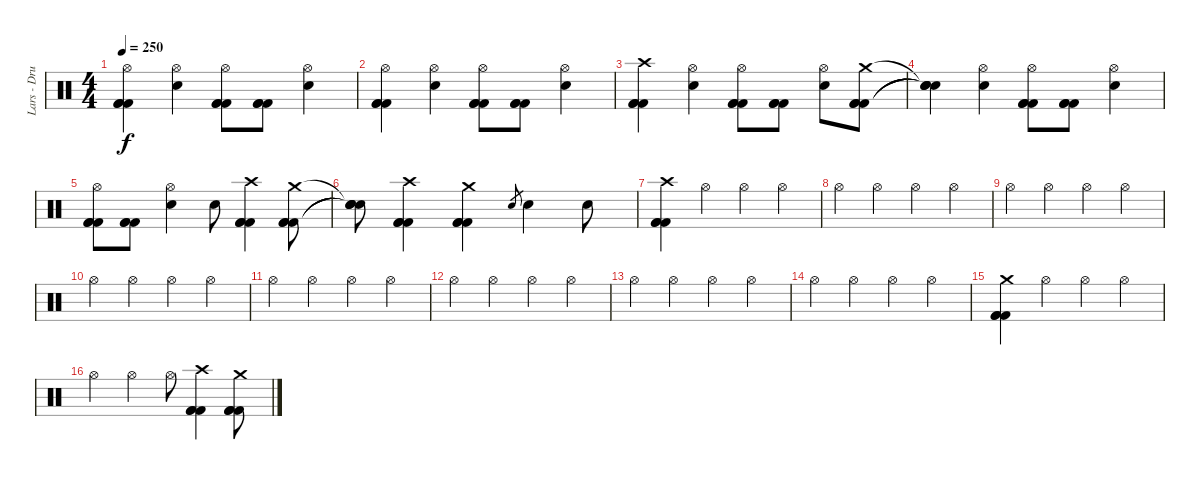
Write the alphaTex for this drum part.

\track ("Lars - Drums" "Lars - Dru") {instrument percussion}
\staff {score}
\articulation defaults
\ts (4 4)
\tempo 250
\clef neutral
\ks c
("Hi-Hat (open)" "Kick (hit) 2" "Kick (hit) 2" "Kick (hit) 2").4{dy f} ("Hi-Hat (open)" "Snare (hit) 2").4 ("Hi-Hat (open)" "Kick (hit) 2" "Kick (hit) 2" "Kick (hit) 2").8 ("Kick (hit) 2" "Kick (hit) 2" "Kick (hit) 2").8 ("Hi-Hat (open)" "Snare (hit) 2").4 |
("Hi-Hat (open)" "Kick (hit) 2" "Kick (hit) 2" "Kick (hit) 2").4 ("Hi-Hat (open)" "Snare (hit) 2").4 ("Hi-Hat (open)" "Kick (hit) 2" "Kick (hit) 2" "Kick (hit) 2").8 ("Kick (hit) 2" "Kick (hit) 2" "Kick (hit) 2").8 ("Hi-Hat (open)" "Snare (hit) 2").4 |
("Crash high (hit)" "Kick (hit) 2" "Kick (hit) 2" "Kick (hit) 2").4 ("Hi-Hat (open)" "Snare (hit) 2").4 ("Hi-Hat (open)" "Kick (hit) 2" "Kick (hit) 2" "Kick (hit) 2").8 ("Kick (hit) 2" "Kick (hit) 2" "Kick (hit) 2").8 ("Hi-Hat (open)" "Snare (hit) 2").8 ("Crash medium (hit)" "Kick (hit) 2" "Kick (hit) 2" "Kick (hit) 2").8 |
("Snare (hit)"{t} "Snare (hit)"{t} "Snare (hit)"{t} "Snare (hit)"{t}).4 ("Hi-Hat (open)" "Snare (hit) 2").4 ("Hi-Hat (open)" "Kick (hit) 2" "Kick (hit) 2" "Kick (hit) 2").8 ("Kick (hit) 2" "Kick (hit) 2" "Kick (hit) 2").8 ("Hi-Hat (open)" "Snare (hit) 2").4 |
("Hi-Hat (open)" "Kick (hit) 2" "Kick (hit) 2" "Kick (hit) 2").8 ("Kick (hit) 2" "Kick (hit) 2" "Kick (hit) 2").8 ("Hi-Hat (open)" "Snare (hit) 2").4 "Snare (hit) 2".8 ("Crash high (hit)" "Kick (hit) 2" "Kick (hit) 2" "Kick (hit) 2").4 ("Crash medium (hit)" "Kick (hit) 2" "Kick (hit) 2" "Kick (hit) 2").8 |
("Snare (hit)"{t} "Snare (hit)"{t} "Snare (hit)"{t} "Snare (hit)"{t}).8 ("Crash high (hit)" "Kick (hit) 2" "Kick (hit) 2" "Kick (hit) 2").4 ("Crash medium (hit)" "Kick (hit) 2" "Kick (hit) 2" "Kick (hit) 2").4 "Snare (hit) 2".8{gr} "Snare (hit) 2".4 "Snare (hit) 2".8 |
("Crash high (hit)" "Kick (hit) 2" "Kick (hit) 2" "Kick (hit) 2").4 "Hi-Hat (open)".4 "Hi-Hat (open)".4 "Hi-Hat (open)".4 |
"Hi-Hat (open)".4 "Hi-Hat (open)".4 "Hi-Hat (open)".4 "Hi-Hat (open)".4 |
"Hi-Hat (open)".4 "Hi-Hat (open)".4 "Hi-Hat (open)".4 "Hi-Hat (open)".4 |
"Hi-Hat (open)".4 "Hi-Hat (open)".4 "Hi-Hat (open)".4 "Hi-Hat (open)".4 |
"Hi-Hat (open)".4 "Hi-Hat (open)".4 "Hi-Hat (open)".4 "Hi-Hat (open)".4 |
"Hi-Hat (open)".4 "Hi-Hat (open)".4 "Hi-Hat (open)".4 "Hi-Hat (open)".4 |
"Hi-Hat (open)".4 "Hi-Hat (open)".4 "Hi-Hat (open)".4 "Hi-Hat (open)".4 |
"Hi-Hat (open)".4 "Hi-Hat (open)".4 "Hi-Hat (open)".4 "Hi-Hat (open)".4 |
("Crash medium (hit)" "Kick (hit) 2" "Kick (hit) 2" "Kick (hit) 2").4 "Hi-Hat (open)".4 "Hi-Hat (open)".4 "Hi-Hat (open)".4 |
"Hi-Hat (open)".4 "Hi-Hat (open)".4 "Hi-Hat (open)".8 ("Crash high (hit)" "Kick (hit) 2" "Kick (hit) 2" "Kick (hit) 2").4 ("Crash medium (hit)" "Kick (hit) 2" "Kick (hit) 2" "Kick (hit) 2").8
